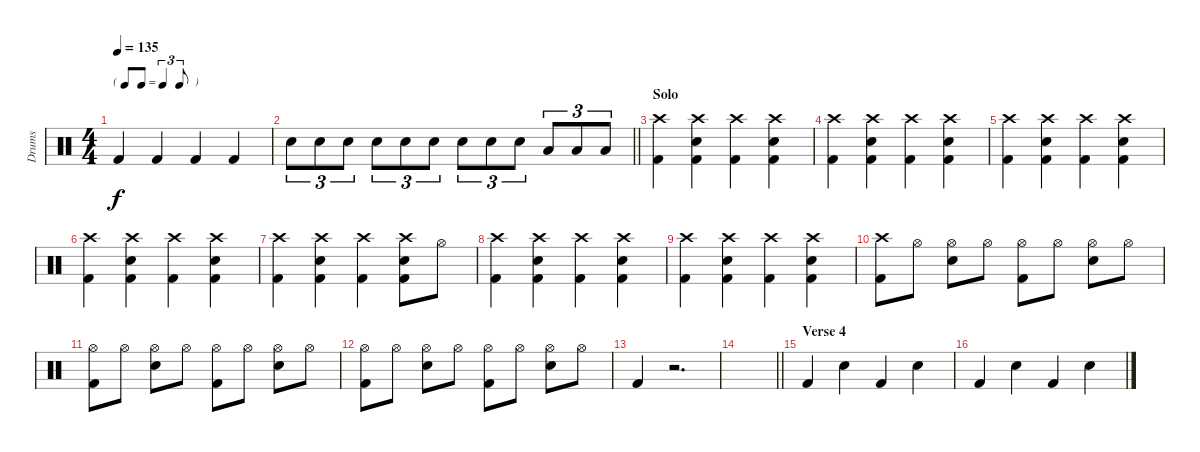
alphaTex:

\track ("Drums" "Drums") {instrument percussion}
\staff {score}
\articulation defaults
\ts (4 4)
\tf triplet8th
\tempo 135
\clef neutral
\ks c "Kick (hit) 2".4{dy f} "Kick (hit) 2".4 "Kick (hit) 2".4 "Kick (hit) 2".4
|
\barLineRight lightlight "Snare (hit) 2".8{tu (3 2)} "Snare (hit) 2".8{tu (3 2)} "Snare (hit) 2".8{tu (3 2)} "Snare (hit) 2".8{tu (3 2)} "Snare (hit) 2".8{tu (3 2)} "Snare (hit) 2".8{tu (3 2)} "Snare (hit) 2".8{tu (3 2)} "Snare (hit) 2".8{tu (3 2)} "Snare (hit) 2".8{tu (3 2)} "Low Tom (hit)".8{tu (3 2)} "Low Tom (hit)".8{tu (3 2)} "Low Tom (hit)".8{tu (3 2)}
|
\section ("" "Solo")
("Crash high (hit)" "Kick (hit) 2").4 ("Crash high (hit)" "Snare (hit) 2" "Kick (hit) 2").4 ("Crash high (hit)" "Kick (hit) 2").4 ("Crash high (hit)" "Snare (hit) 2" "Kick (hit) 2").4 |
("Crash high (hit)" "Kick (hit) 2").4 ("Crash high (hit)" "Snare (hit) 2" "Kick (hit) 2").4 ("Crash high (hit)" "Kick (hit) 2").4 ("Crash high (hit)" "Snare (hit) 2" "Kick (hit) 2").4 |
("Crash high (hit)" "Kick (hit) 2").4 ("Crash high (hit)" "Snare (hit) 2" "Kick (hit) 2").4 ("Crash high (hit)" "Kick (hit) 2").4 ("Crash high (hit)" "Snare (hit) 2" "Kick (hit) 2").4 |
("Crash high (hit)" "Kick (hit) 2").4 ("Crash high (hit)" "Snare (hit) 2" "Kick (hit) 2").4 ("Crash high (hit)" "Kick (hit) 2").4 ("Crash high (hit)" "Snare (hit) 2" "Kick (hit) 2").4 |
("Crash high (hit)" "Kick (hit) 2").4 ("Crash high (hit)" "Snare (hit) 2" "Kick (hit) 2").4 ("Crash high (hit)" "Kick (hit) 2").4 ("Crash high (hit)" "Snare (hit) 2" "Kick (hit) 2").8 "Hi-Hat (open)".8 |
("Crash high (hit)" "Kick (hit) 2").4 ("Crash high (hit)" "Snare (hit) 2" "Kick (hit) 2").4 ("Crash high (hit)" "Kick (hit) 2").4 ("Crash high (hit)" "Snare (hit) 2" "Kick (hit) 2").4 |
("Crash high (hit)" "Kick (hit) 2").4 ("Crash high (hit)" "Snare (hit) 2" "Kick (hit) 2").4 ("Crash high (hit)" "Kick (hit) 2").4 ("Crash high (hit)" "Snare (hit) 2" "Kick (hit) 2").4 |
("Crash high (hit)" "Kick (hit) 2").8 "Hi-Hat (open)".8 ("Hi-Hat (open)" "Snare (hit) 2").8 "Hi-Hat (open)".8 ("Hi-Hat (open)" "Kick (hit) 2").8 "Hi-Hat (open)".8 ("Hi-Hat (open)" "Snare (hit) 2").8 "Hi-Hat (open)".8 |
("Hi-Hat (open)" "Kick (hit) 2").8 "Hi-Hat (open)".8 ("Hi-Hat (open)" "Snare (hit) 2").8 "Hi-Hat (open)".8 ("Hi-Hat (open)" "Kick (hit) 2").8 "Hi-Hat (open)".8 ("Hi-Hat (open)" "Snare (hit) 2").8 "Hi-Hat (open)".8 |
("Hi-Hat (open)" "Kick (hit) 2").8 "Hi-Hat (open)".8 ("Hi-Hat (open)" "Snare (hit) 2").8 "Hi-Hat (open)".8 ("Hi-Hat (open)" "Kick (hit) 2").8 "Hi-Hat (open)".8 ("Hi-Hat (open)" "Snare (hit) 2").8 "Hi-Hat (open)".8 |
"Kick (hit) 2".4 r.2{d} |
\barLineRight lightlight
|
\section ("" "Verse 4")
"Kick (hit) 2".4 "Snare (hit) 2".4 "Kick (hit) 2".4 "Snare (hit) 2".4 |
"Kick (hit) 2".4 "Snare (hit) 2".4 "Kick (hit) 2".4 "Snare (hit) 2".4
